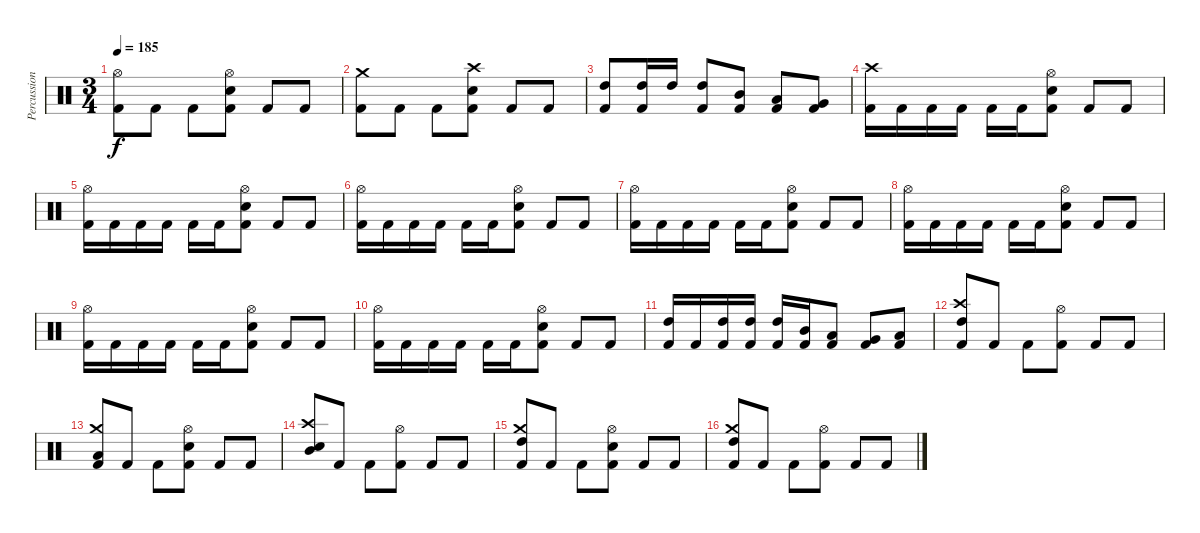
\track ("Percussion" "Percussion") {instrument percussion}
\staff {score}
\articulation defaults
\ts (3 4)
\tempo 185
\clef neutral
\ks c
("Hi-Hat (open)" "Kick (hit) 2").8{dy f} "Kick (hit) 2".8 "Kick (hit) 2".8 ("Hi-Hat (open)" "Snare (hit) 2" "Kick (hit) 2").8 "Kick (hit) 2".8 "Kick (hit) 2".8 |
("Crash medium (hit)" "Kick (hit) 2").8 "Kick (hit) 2".8 "Kick (hit) 2".8 ("Crash high (hit)" "Snare (hit) 2" "Kick (hit) 2").8 "Kick (hit) 2".8 "Kick (hit) 2".8 |
("High Tom (hit)" "Kick (hit) 2").8 ("High Tom (hit)" "Kick (hit) 2").16 "High Tom (hit)".16 ("High Tom (hit)" "Kick (hit) 2").8 ("Mid Tom (hit)" "Kick (hit) 2").8 ("Low Tom (hit)" "Kick (hit) 2").8 ("Very Low Tom (hit)" "Kick (hit) 2").8 |
("Crash high (hit)" "Kick (hit) 2").16 "Kick (hit) 2".16 "Kick (hit) 2".16 "Kick (hit) 2".16 "Kick (hit) 2".16 "Kick (hit) 2".16 ("Hi-Hat (open)" "Snare (hit) 2" "Kick (hit) 2").8 "Kick (hit) 2".8 "Kick (hit) 2".8 |
("Hi-Hat (open)" "Kick (hit) 2").16 "Kick (hit) 2".16 "Kick (hit) 2".16 "Kick (hit) 2".16 "Kick (hit) 2".16 "Kick (hit) 2".16 ("Hi-Hat (open)" "Snare (hit) 2" "Kick (hit) 2").8 "Kick (hit) 2".8 "Kick (hit) 2".8 |
("Hi-Hat (open)" "Kick (hit) 2").16 "Kick (hit) 2".16 "Kick (hit) 2".16 "Kick (hit) 2".16 "Kick (hit) 2".16 "Kick (hit) 2".16 ("Hi-Hat (open)" "Snare (hit) 2" "Kick (hit) 2").8 "Kick (hit) 2".8 "Kick (hit) 2".8 |
("Hi-Hat (open)" "Kick (hit) 2").16 "Kick (hit) 2".16 "Kick (hit) 2".16 "Kick (hit) 2".16 "Kick (hit) 2".16 "Kick (hit) 2".16 ("Hi-Hat (open)" "Snare (hit) 2" "Kick (hit) 2").8 "Kick (hit) 2".8 "Kick (hit) 2".8 |
("Hi-Hat (open)" "Kick (hit) 2").16 "Kick (hit) 2".16 "Kick (hit) 2".16 "Kick (hit) 2".16 "Kick (hit) 2".16 "Kick (hit) 2".16 ("Hi-Hat (open)" "Snare (hit) 2" "Kick (hit) 2").8 "Kick (hit) 2".8 "Kick (hit) 2".8 |
("Hi-Hat (open)" "Kick (hit) 2").16 "Kick (hit) 2".16 "Kick (hit) 2".16 "Kick (hit) 2".16 "Kick (hit) 2".16 "Kick (hit) 2".16 ("Hi-Hat (open)" "Snare (hit) 2" "Kick (hit) 2").8 "Kick (hit) 2".8 "Kick (hit) 2".8 |
("Hi-Hat (open)" "Kick (hit) 2").16 "Kick (hit) 2".16 "Kick (hit) 2".16 "Kick (hit) 2".16 "Kick (hit) 2".16 "Kick (hit) 2".16 ("Hi-Hat (open)" "Snare (hit) 2" "Kick (hit) 2").8 "Kick (hit) 2".8 "Kick (hit) 2".8 |
("High Tom (hit)" "Kick (hit) 2").16 "Kick (hit) 2".16 ("High Tom (hit)" "Kick (hit) 2").16 ("High Tom (hit)" "Kick (hit) 2").16 ("High Tom (hit)" "Kick (hit) 2").16 ("Mid Tom (hit)" "Kick (hit) 2").16 ("Low Tom (hit)" "Kick (hit) 2").8 ("Very Low Tom (hit)" "Kick (hit) 2").8 ("Low Floor Tom (hit)" "Kick (hit) 2").8 |
("Crash high (hit)" "High Tom (hit)" "Kick (hit) 2").8 "Kick (hit) 2".8 "Kick (hit) 2".8 ("Hi-Hat (open)" "Kick (hit) 2").8 "Kick (hit) 2".8 "Kick (hit) 2".8 |
("Crash medium (hit)" "Low Tom (hit)" "Kick (hit) 2").8 "Kick (hit) 2".8 "Kick (hit) 2".8 ("Hi-Hat (open)" "Snare (hit) 2" "Kick (hit) 2").8 "Kick (hit) 2".8 "Kick (hit) 2".8 |
("Crash high (hit)" "Mid Tom (hit)" "Snare (hit) 2").8 "Kick (hit) 2".8 "Kick (hit) 2".8 ("Hi-Hat (open)" "Kick (hit) 2").8 "Kick (hit) 2".8 "Kick (hit) 2".8 |
("Crash medium (hit)" "High Tom (hit)" "Kick (hit) 2").8 "Kick (hit) 2".8 "Kick (hit) 2".8 ("Hi-Hat (open)" "Snare (hit) 2" "Kick (hit) 2").8 "Kick (hit) 2".8 "Kick (hit) 2".8 |
("Crash medium (hit)" "High Tom (hit)" "Kick (hit) 2").8 "Kick (hit) 2".8 "Kick (hit) 2".8 ("Hi-Hat (open)" "Kick (hit) 2").8 "Kick (hit) 2".8 "Kick (hit) 2".8
